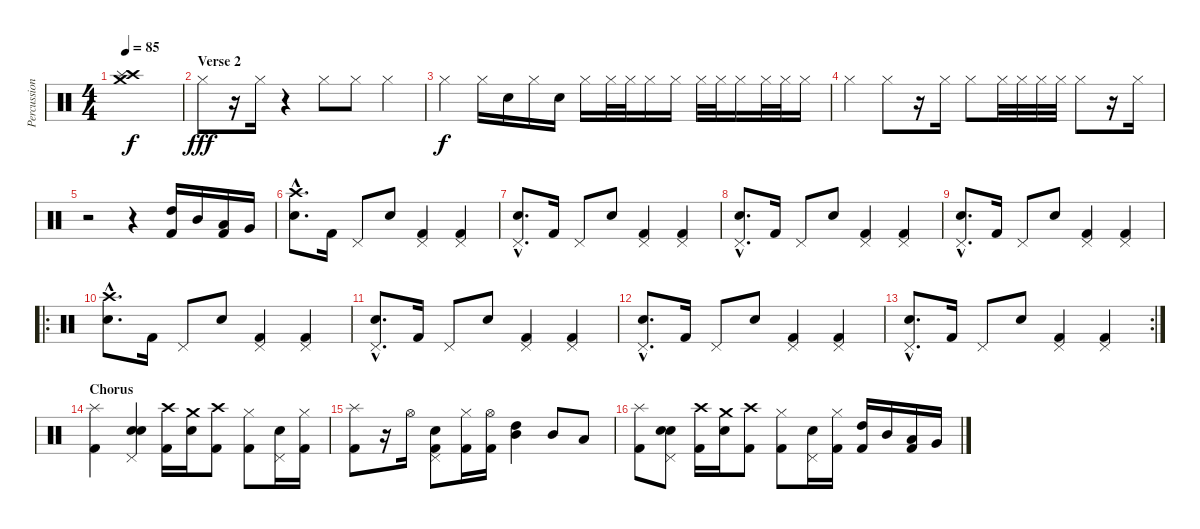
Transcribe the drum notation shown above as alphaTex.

\track ("Percussion" "Percussion") {instrument percussion}
\staff {score}
\articulation defaults
\ts (4 4)
\tempo 85
\clef neutral
\ks c
("Crash high (hit)" "Splash (hit)" "Crash medium (hit)").1{dy f} |
\section ("" "Verse 2")
"Hi-Hat (closed)".8{dy fff} r.16 "Hi-Hat (closed)".16 r.4 "Hi-Hat (closed)".8 "Hi-Hat (closed)".8 "Hi-Hat (closed)".4 |
"Hi-Hat (closed)".4{dy f} "Hi-Hat (closed)".16 "Snare (hit)".16 "Hi-Hat (closed)".16 "Snare (hit)".16 "Hi-Hat (closed)".16 "Hi-Hat (closed)".32 "Hi-Hat (closed)".32 "Hi-Hat (closed)".16 "Hi-Hat (closed)".16 "Hi-Hat (closed)".32 "Hi-Hat (closed)".32 "Hi-Hat (closed)".16 "Hi-Hat (closed)".32 "Hi-Hat (closed)".32 "Hi-Hat (closed)".16 |
"Hi-Hat (closed)".4 "Hi-Hat (closed)".8 r.16 "Hi-Hat (closed)".16 "Hi-Hat (closed)".8 "Hi-Hat (closed)".32 "Hi-Hat (closed)".32 "Hi-Hat (closed)".32 "Hi-Hat (closed)".32 "Hi-Hat (closed)".8 r.16 "Hi-Hat (closed)".16 |
r.2 r.4 ("High Tom (hit)" "Kick (hit) 2").16 "Mid Tom (hit)".16 ("Low Tom (hit)" "Kick (hit) 2").16 "Very Low Tom (hit)".16 |
("Crash high (hit)"{hac} "Electric Snare (hit)"{hac}).8{d} "Kick (hit) 2".16 "Pedal Hi-Hat (hit)".8 "Electric Snare (hit)".8 ("Pedal Hi-Hat (hit)" "Kick (hit) 2").4 ("Pedal Hi-Hat (hit)" "Kick (hit) 2").4 |
("Pedal Hi-Hat (hit)"{hac} "Electric Snare (hit)"{hac}).8{d} "Kick (hit) 2".16 "Pedal Hi-Hat (hit)".8 "Electric Snare (hit)".8 ("Pedal Hi-Hat (hit)" "Kick (hit) 2").4 ("Pedal Hi-Hat (hit)" "Kick (hit) 2").4 |
("Pedal Hi-Hat (hit)"{hac} "Electric Snare (hit)"{hac}).8{d} "Kick (hit) 2".16 "Pedal Hi-Hat (hit)".8 "Electric Snare (hit)".8 ("Pedal Hi-Hat (hit)" "Kick (hit) 2").4 ("Pedal Hi-Hat (hit)" "Kick (hit) 2").4 |
("Pedal Hi-Hat (hit)"{hac} "Electric Snare (hit)"{hac}).8{d} "Kick (hit) 2".16 "Pedal Hi-Hat (hit)".8 "Electric Snare (hit)".8 ("Pedal Hi-Hat (hit)" "Kick (hit) 2").4 ("Pedal Hi-Hat (hit)" "Kick (hit) 2").4 |
\ro
("Crash high (hit)"{hac} "Electric Snare (hit)"{hac}).8{d} "Kick (hit) 2".16 "Pedal Hi-Hat (hit)".8 "Electric Snare (hit)".8 ("Pedal Hi-Hat (hit)" "Kick (hit) 2").4 ("Pedal Hi-Hat (hit)" "Kick (hit) 2").4 |
("Pedal Hi-Hat (hit)"{hac} "Electric Snare (hit)"{hac}).8{d} "Kick (hit) 2".16 "Pedal Hi-Hat (hit)".8 "Electric Snare (hit)".8 ("Pedal Hi-Hat (hit)" "Kick (hit) 2").4 ("Pedal Hi-Hat (hit)" "Kick (hit) 2").4 |
("Pedal Hi-Hat (hit)"{hac} "Electric Snare (hit)"{hac}).8{d} "Kick (hit) 2".16 "Pedal Hi-Hat (hit)".8 "Electric Snare (hit)".8 ("Pedal Hi-Hat (hit)" "Kick (hit) 2").4 ("Pedal Hi-Hat (hit)" "Kick (hit) 2").4 |
\rc 2
("Pedal Hi-Hat (hit)"{hac} "Electric Snare (hit)"{hac}).8{d} "Kick (hit) 2".16 "Pedal Hi-Hat (hit)".8 "Electric Snare (hit)".8 ("Pedal Hi-Hat (hit)" "Kick (hit) 2").4 ("Pedal Hi-Hat (hit)" "Kick (hit) 2").4 |
\section ("" "Chorus")
("Splash (hit)" "Kick (hit) 2").4 ("Pedal Hi-Hat (hit)" "Electric Snare (hit)" "Snare (hit) 2").4 ("Crash high (hit)" "Kick (hit) 2").16 ("Crash medium (hit)" "Electric Snare (hit)").16 ("Crash high (hit)" "Kick (hit) 2").8 ("Hi-Hat (closed)" "Kick (hit) 2").8 ("Pedal Hi-Hat (hit)" "Electric Snare (hit)").16 ("Hi-Hat (closed)" "Kick (hit) 2").16 |
("Splash (hit)" "Kick (hit) 2").8 r.16 "Hi-Hat (open)".16 ("Pedal Hi-Hat (hit)" "Electric Snare (hit)" "Kick (hit) 2").8 ("Hi-Hat (closed)" "Kick (hit) 2").16 ("Hi-Hat (open)" "Kick (hit) 2").16 ("Mid Tom (hit)" "High Tom (hit)").4 "Mid Tom (hit)".8 "Low Tom (hit)".8 |
("Splash (hit)" "Kick (hit) 2").8 ("Pedal Hi-Hat (hit)" "Electric Snare (hit)" "Snare (hit) 2").8 ("Crash high (hit)" "Kick (hit) 2").16 ("Crash medium (hit)" "Electric Snare (hit)").16 ("Crash high (hit)" "Kick (hit) 2").8 ("Hi-Hat (closed)" "Kick (hit) 2").8 ("Pedal Hi-Hat (hit)" "Electric Snare (hit)").16 ("Hi-Hat (closed)" "Kick (hit) 2").16 ("High Tom (hit)" "Kick (hit) 2").16 "Mid Tom (hit)".16 ("Low Tom (hit)" "Kick (hit) 2").16 "Very Low Tom (hit)".16
